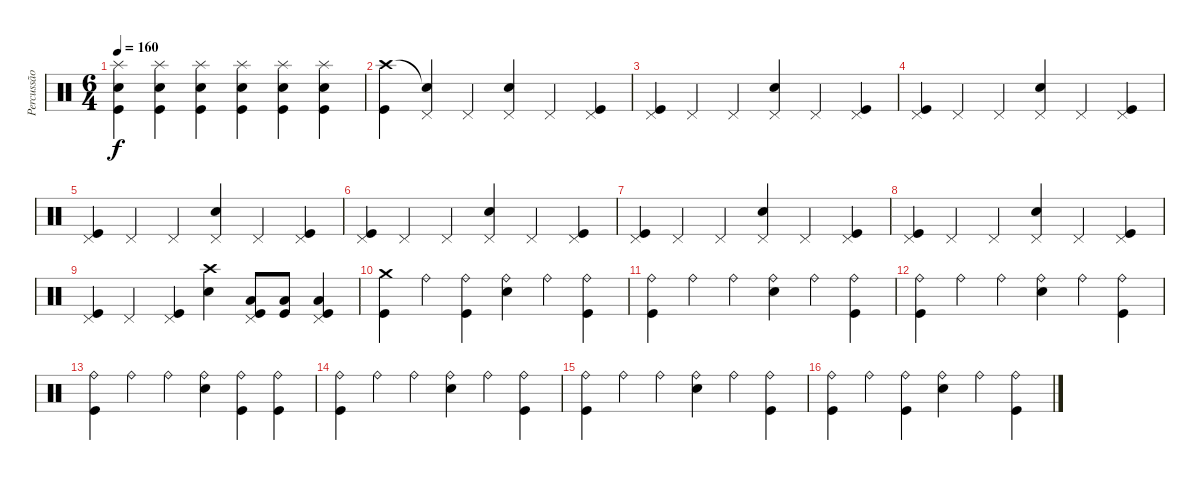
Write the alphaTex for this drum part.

\track ("Percussão" "Percussão") {instrument percussion}
\staff {score}
\articulation defaults
\ts (6 4)
\tempo 160
\clef neutral
\ks c
("Splash (hit)" "Snare (hit) 2" "Kick (hit)").4{dy f} ("Splash (hit)" "Snare (hit) 2" "Kick (hit)").4 ("Splash (hit)" "Snare (hit) 2" "Kick (hit)").4 ("Splash (hit)" "Snare (hit) 2" "Kick (hit)").4 ("Splash (hit)" "Snare (hit) 2" "Kick (hit)").4 ("Splash (hit)" "Snare (hit) 2" "Kick (hit)").4 |
("Crash high (hit)" "Kick (hit)").4 ("Snare (hit)"{t} "Pedal Hi-Hat (hit)").4 "Pedal Hi-Hat (hit)".4 ("Pedal Hi-Hat (hit)" "Snare (hit) 2").4 "Pedal Hi-Hat (hit)".4 ("Pedal Hi-Hat (hit)" "Kick (hit)").4 |
("Pedal Hi-Hat (hit)" "Kick (hit)").4 "Pedal Hi-Hat (hit)".4 "Pedal Hi-Hat (hit)".4 ("Pedal Hi-Hat (hit)" "Snare (hit) 2").4 "Pedal Hi-Hat (hit)".4 ("Pedal Hi-Hat (hit)" "Kick (hit)").4 |
("Pedal Hi-Hat (hit)" "Kick (hit)").4 "Pedal Hi-Hat (hit)".4 "Pedal Hi-Hat (hit)".4 ("Pedal Hi-Hat (hit)" "Snare (hit) 2").4 "Pedal Hi-Hat (hit)".4 ("Pedal Hi-Hat (hit)" "Kick (hit)").4 |
("Pedal Hi-Hat (hit)" "Kick (hit)").4 "Pedal Hi-Hat (hit)".4 "Pedal Hi-Hat (hit)".4 ("Pedal Hi-Hat (hit)" "Snare (hit) 2").4 "Pedal Hi-Hat (hit)".4 ("Pedal Hi-Hat (hit)" "Kick (hit)").4 |
("Pedal Hi-Hat (hit)" "Kick (hit)").4 "Pedal Hi-Hat (hit)".4 "Pedal Hi-Hat (hit)".4 ("Pedal Hi-Hat (hit)" "Snare (hit) 2").4 "Pedal Hi-Hat (hit)".4 ("Pedal Hi-Hat (hit)" "Kick (hit)").4 |
("Pedal Hi-Hat (hit)" "Kick (hit)").4 "Pedal Hi-Hat (hit)".4 "Pedal Hi-Hat (hit)".4 ("Pedal Hi-Hat (hit)" "Snare (hit) 2").4 "Pedal Hi-Hat (hit)".4 ("Pedal Hi-Hat (hit)" "Kick (hit)").4 |
("Pedal Hi-Hat (hit)" "Kick (hit)").4 "Pedal Hi-Hat (hit)".4 "Pedal Hi-Hat (hit)".4 ("Pedal Hi-Hat (hit)" "Snare (hit) 2").4 "Pedal Hi-Hat (hit)".4 ("Pedal Hi-Hat (hit)" "Kick (hit)").4 |
("Pedal Hi-Hat (hit)" "Kick (hit)").4 "Pedal Hi-Hat (hit)".4 ("Pedal Hi-Hat (hit)" "Kick (hit)").4 ("Crash high (hit)" "Snare (hit) 2").4 ("Pedal Hi-Hat (hit)" "Low Tom (hit)" "Kick (hit)").8{balance 14} ("Low Floor Tom (hit)" "Kick (hit)").8{balance 2} ("Pedal Hi-Hat (hit)" "Low Floor Tom (hit)" "Kick (hit)").4{balance 13} |
("Crash medium (hit)" "Kick (hit)").4{balance 8} "Ride (bell)".4 ("Ride (bell)" "Kick (hit)").4 ("Ride (bell)" "Snare (hit) 2").4 "Ride (bell)".4 ("Ride (bell)" "Kick (hit)").4 |
("Ride (bell)" "Kick (hit)").4 "Ride (bell)".4 "Ride (bell)".4 ("Ride (bell)" "Snare (hit) 2").4 "Ride (bell)".4 ("Ride (bell)" "Kick (hit)").4 |
("Ride (bell)" "Kick (hit)").4 "Ride (bell)".4 "Ride (bell)".4 ("Ride (bell)" "Snare (hit) 2").4 "Ride (bell)".4 ("Ride (bell)" "Kick (hit)").4 |
("Ride (bell)" "Kick (hit)").4 "Ride (bell)".4 "Ride (bell)".4 ("Ride (bell)" "Snare (hit) 2").4 ("Ride (bell)" "Kick (hit)").4 ("Ride (bell)" "Kick (hit)").4 |
("Ride (bell)" "Kick (hit)").4 "Ride (bell)".4 "Ride (bell)".4 ("Ride (bell)" "Snare (hit) 2").4 "Ride (bell)".4 ("Ride (bell)" "Kick (hit)").4 |
("Ride (bell)" "Kick (hit)").4 "Ride (bell)".4 "Ride (bell)".4 ("Ride (bell)" "Snare (hit) 2").4 "Ride (bell)".4 ("Ride (bell)" "Kick (hit)").4 |
("Ride (bell)" "Kick (hit)").4 "Ride (bell)".4 ("Ride (bell)" "Kick (hit)").4 ("Ride (bell)" "Snare (hit) 2").4 "Ride (bell)".4 ("Ride (bell)" "Kick (hit)").4
